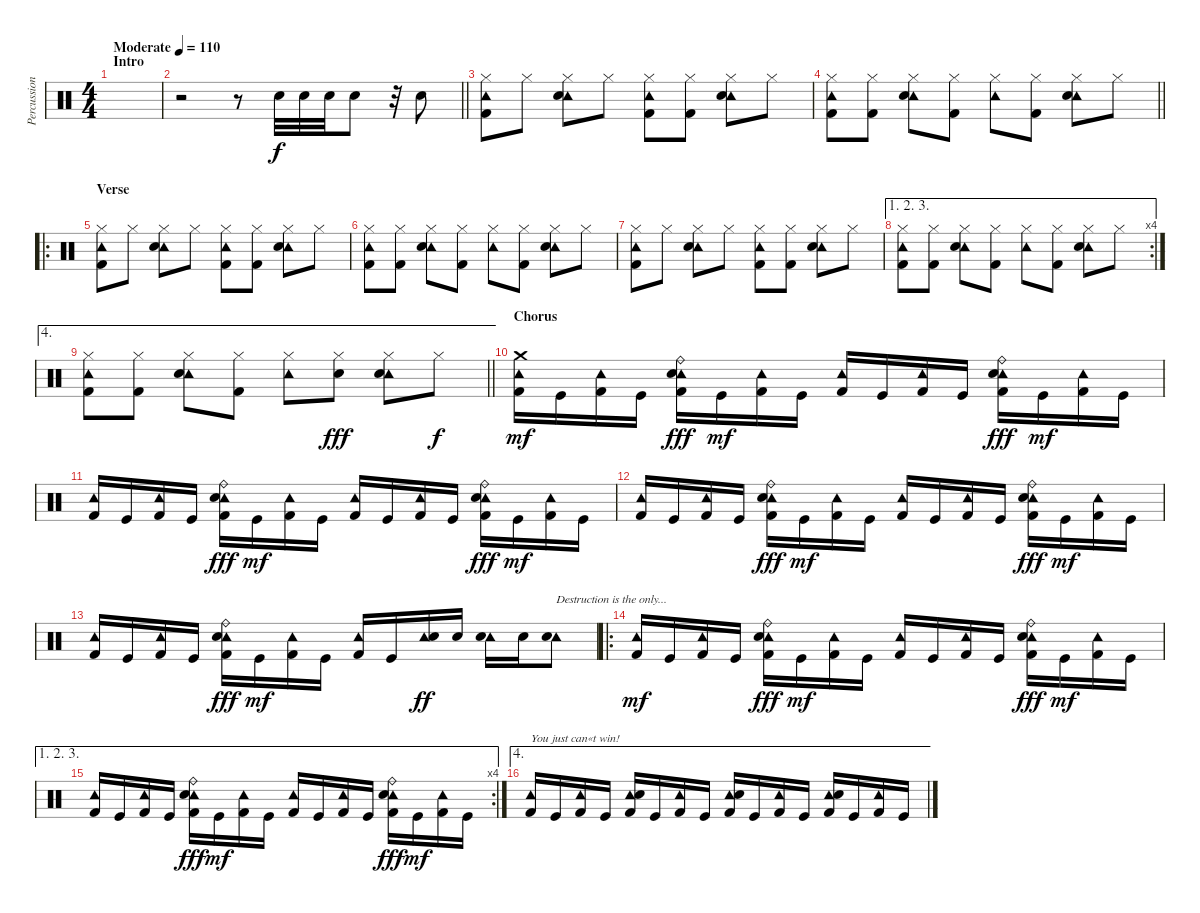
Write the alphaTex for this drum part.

\track ("Percussion" "Percussion") {instrument percussion}
\staff {score}
\articulation defaults
\ts (4 4)
\section ("" "Intro")
\tempo (110 "Moderate")
\clef neutral
\ks c
|
\barLineRight lightlight
r.2 r.8 "Snare (hit) 2".32 "Snare (hit) 2".32 "Snare (hit) 2".32 "Snare (hit) 2".8 r.32 "Snare (hit) 2".8 |
("Tambourine (hit)" "Hi-Hat (closed)" "Kick (hit) 2").8 "Hi-Hat (closed)".8 ("Tambourine (hit)" "Hi-Hat (closed)" "Snare (hit) 2").8 "Hi-Hat (closed)".8 ("Tambourine (hit)" "Hi-Hat (closed)" "Kick (hit) 2").8 ("Hi-Hat (closed)" "Kick (hit) 2").8 ("Tambourine (hit)" "Hi-Hat (closed)" "Snare (hit) 2").8 "Hi-Hat (closed)".8 |
\barLineRight lightlight
("Tambourine (hit)" "Hi-Hat (closed)" "Kick (hit) 2").8 ("Hi-Hat (closed)" "Kick (hit) 2").8 ("Tambourine (hit)" "Hi-Hat (closed)" "Snare (hit) 2").8 ("Hi-Hat (closed)" "Kick (hit) 2").8 ("Tambourine (hit)" "Hi-Hat (closed)").8 ("Hi-Hat (closed)" "Kick (hit) 2").8 ("Tambourine (hit)" "Hi-Hat (closed)" "Snare (hit) 2").8 "Hi-Hat (closed)".8 |
\ro
\section ("" "Verse")
("Tambourine (hit)" "Hi-Hat (closed)" "Kick (hit) 2").8 "Hi-Hat (closed)".8 ("Tambourine (hit)" "Hi-Hat (closed)" "Snare (hit) 2").8 "Hi-Hat (closed)".8 ("Tambourine (hit)" "Hi-Hat (closed)" "Kick (hit) 2").8 ("Hi-Hat (closed)" "Kick (hit) 2").8 ("Tambourine (hit)" "Hi-Hat (closed)" "Snare (hit) 2").8 "Hi-Hat (closed)".8 |
("Tambourine (hit)" "Hi-Hat (closed)" "Kick (hit) 2").8 ("Hi-Hat (closed)" "Kick (hit) 2").8 ("Tambourine (hit)" "Hi-Hat (closed)" "Snare (hit) 2").8 ("Hi-Hat (closed)" "Kick (hit) 2").8 ("Tambourine (hit)" "Hi-Hat (closed)").8 ("Hi-Hat (closed)" "Kick (hit) 2").8 ("Tambourine (hit)" "Hi-Hat (closed)" "Snare (hit) 2").8 "Hi-Hat (closed)".8 |
("Tambourine (hit)" "Hi-Hat (closed)" "Kick (hit) 2").8 "Hi-Hat (closed)".8 ("Tambourine (hit)" "Hi-Hat (closed)" "Snare (hit) 2").8 "Hi-Hat (closed)".8 ("Tambourine (hit)" "Hi-Hat (closed)" "Kick (hit) 2").8 ("Hi-Hat (closed)" "Kick (hit) 2").8 ("Tambourine (hit)" "Hi-Hat (closed)" "Snare (hit) 2").8 "Hi-Hat (closed)".8 |
\ae (1 2 3)
\rc 4
("Tambourine (hit)" "Hi-Hat (closed)" "Kick (hit) 2").8 ("Hi-Hat (closed)" "Kick (hit) 2").8 ("Tambourine (hit)" "Hi-Hat (closed)" "Snare (hit) 2").8 ("Hi-Hat (closed)" "Kick (hit) 2").8 ("Tambourine (hit)" "Hi-Hat (closed)").8 ("Hi-Hat (closed)" "Kick (hit) 2").8 ("Tambourine (hit)" "Hi-Hat (closed)" "Snare (hit) 2").8 "Hi-Hat (closed)".8 |
\ae 4
\barLineRight lightlight
("Tambourine (hit)" "Hi-Hat (closed)" "Kick (hit) 2").8 ("Hi-Hat (closed)" "Kick (hit) 2").8 ("Tambourine (hit)" "Hi-Hat (closed)" "Snare (hit) 2").8 ("Hi-Hat (closed)" "Kick (hit) 2").8 ("Tambourine (hit)" "Hi-Hat (closed)").8 ("Hi-Hat (closed)" "Snare (hit) 2").8{dy fff} ("Tambourine (hit)" "Hi-Hat (closed)" "Snare (hit) 2").8 "Hi-Hat (closed)".8{dy f} |
\section ("" "Chorus")
("Tambourine (hit)" "Crash medium (hit)" "Kick (hit) 2").16{dy mf} "Kick (hit)".16 ("Tambourine (hit)" "Kick (hit) 2").16 "Kick (hit)".16 ("Tambourine (hit)" "Snare (hit) 2" "Kick (hit) 2" "Ride (bell)").16{dy fff} "Kick (hit)".16{dy mf} ("Tambourine (hit)" "Kick (hit) 2").16 "Kick (hit)".16 ("Tambourine (hit)" "Kick (hit) 2").16 "Kick (hit)".16 ("Tambourine (hit)" "Kick (hit) 2").16 "Kick (hit)".16 ("Tambourine (hit)" "Snare (hit) 2" "Kick (hit) 2" "Ride (bell)").16{dy fff} "Kick (hit)".16{dy mf} ("Tambourine (hit)" "Kick (hit) 2").16 "Kick (hit)".16 |
("Tambourine (hit)" "Kick (hit) 2").16 "Kick (hit)".16 ("Tambourine (hit)" "Kick (hit) 2").16 "Kick (hit)".16 ("Tambourine (hit)" "Snare (hit) 2" "Kick (hit) 2" "Ride (bell)").16{dy fff} "Kick (hit)".16{dy mf} ("Tambourine (hit)" "Kick (hit) 2").16 "Kick (hit)".16 ("Tambourine (hit)" "Kick (hit) 2").16 "Kick (hit)".16 ("Tambourine (hit)" "Kick (hit) 2").16 "Kick (hit)".16 ("Tambourine (hit)" "Snare (hit) 2" "Kick (hit) 2" "Ride (bell)").16{dy fff} "Kick (hit)".16{dy mf} ("Tambourine (hit)" "Kick (hit) 2").16 "Kick (hit)".16 |
("Tambourine (hit)" "Kick (hit) 2").16 "Kick (hit)".16 ("Tambourine (hit)" "Kick (hit) 2").16 "Kick (hit)".16 ("Tambourine (hit)" "Snare (hit) 2" "Kick (hit) 2" "Ride (bell)").16{dy fff} "Kick (hit)".16{dy mf} ("Tambourine (hit)" "Kick (hit) 2").16 "Kick (hit)".16 ("Tambourine (hit)" "Kick (hit) 2").16 "Kick (hit)".16 ("Tambourine (hit)" "Kick (hit) 2").16 "Kick (hit)".16 ("Tambourine (hit)" "Snare (hit) 2" "Kick (hit) 2" "Ride (bell)").16{dy fff} "Kick (hit)".16{dy mf} ("Tambourine (hit)" "Kick (hit) 2").16 "Kick (hit)".16 |
("Tambourine (hit)" "Kick (hit) 2").16 "Kick (hit)".16 ("Tambourine (hit)" "Kick (hit) 2").16 "Kick (hit)".16 ("Tambourine (hit)" "Snare (hit) 2" "Kick (hit) 2" "Ride (bell)").16{dy fff} "Kick (hit)".16{dy mf} ("Tambourine (hit)" "Kick (hit) 2").16 "Kick (hit)".16 ("Tambourine (hit)" "Kick (hit) 2").16 "Kick (hit)".16 ("Tambourine (hit)" "Snare (hit) 2").16{dy ff} "Snare (hit) 2".16 ("Tambourine (hit)" "Snare (hit) 2").16 "Snare (hit) 2".16 ("Tambourine (hit)" "Snare (hit) 2").8{txt "Destruction is the only..."} |
\ro
("Tambourine (hit)" "Kick (hit) 2").16{dy mf} "Kick (hit)".16 ("Tambourine (hit)" "Kick (hit) 2").16 "Kick (hit)".16 ("Tambourine (hit)" "Snare (hit) 2" "Kick (hit) 2" "Ride (bell)").16{dy fff} "Kick (hit)".16{dy mf} ("Tambourine (hit)" "Kick (hit) 2").16 "Kick (hit)".16 ("Tambourine (hit)" "Kick (hit) 2").16 "Kick (hit)".16 ("Tambourine (hit)" "Kick (hit) 2").16 "Kick (hit)".16 ("Tambourine (hit)" "Snare (hit) 2" "Kick (hit) 2" "Ride (bell)").16{dy fff} "Kick (hit)".16{dy mf} ("Tambourine (hit)" "Kick (hit) 2").16 "Kick (hit)".16 |
\ae (1 2 3)
\rc 4
("Tambourine (hit)" "Kick (hit) 2").16 "Kick (hit)".16 ("Tambourine (hit)" "Kick (hit) 2").16 "Kick (hit)".16 ("Tambourine (hit)" "Snare (hit) 2" "Kick (hit) 2" "Ride (bell)").16{dy fff} "Kick (hit)".16{dy mf} ("Tambourine (hit)" "Kick (hit) 2").16 "Kick (hit)".16 ("Tambourine (hit)" "Kick (hit) 2").16 "Kick (hit)".16 ("Tambourine (hit)" "Kick (hit) 2").16 "Kick (hit)".16 ("Tambourine (hit)" "Snare (hit) 2" "Kick (hit) 2" "Ride (bell)").16{dy fff} "Kick (hit)".16{dy mf} ("Tambourine (hit)" "Kick (hit) 2").16 "Kick (hit)".16 |
\ae 4
("Tambourine (hit)" "Kick (hit) 2").16{txt "You just can«t win!"} "Kick (hit)".16 ("Tambourine (hit)" "Kick (hit) 2").16 "Kick (hit)".16 ("Tambourine (hit)" "Snare (hit) 2" "Kick (hit) 2").16 "Kick (hit)".16 ("Tambourine (hit)" "Kick (hit) 2").16 "Kick (hit)".16 ("Tambourine (hit)" "Snare (hit) 2" "Kick (hit) 2").16 "Kick (hit)".16 ("Tambourine (hit)" "Kick (hit) 2").16 "Kick (hit)".16 ("Tambourine (hit)" "Snare (hit) 2" "Kick (hit) 2").16 "Kick (hit)".16 ("Tambourine (hit)" "Kick (hit) 2").16 "Kick (hit)".16
